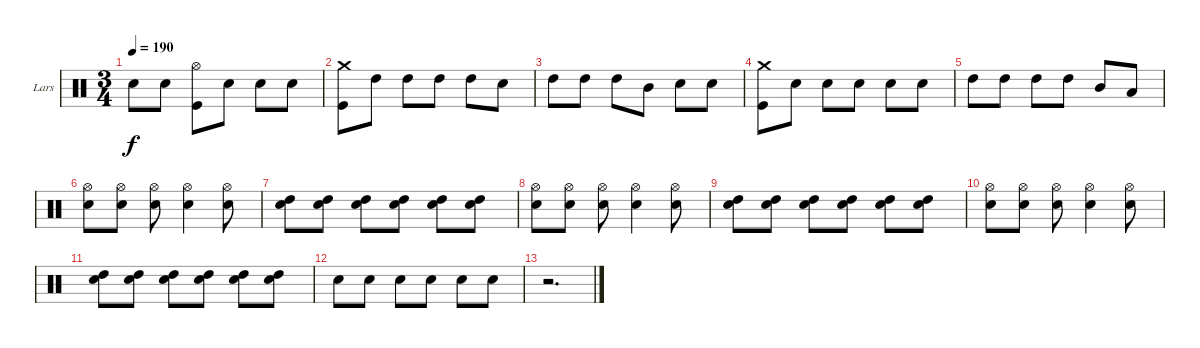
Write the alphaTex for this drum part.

\bracketExtendMode groupsimilarinstruments
\firstSystemTrackNameOrientation horizontal
\otherSystemsTrackNameOrientation horizontal
\track ("Drumkit" "Lars") {instrument percussion}
\staff {score}
\articulation defaults
\ts (3 4)
\tempo 190
\clef neutral
\ks c "Snare (hit) 2".8{dy f} "Snare (hit) 2".8
("Hi-Hat (open)" "Kick (hit)").8 "Snare (hit) 2".8 "Snare (hit) 2".8 "Snare (hit) 2".8 |
("Crash medium (hit)" "Kick (hit)").8 "High Tom (hit)".8 "High Tom (hit)".8 "High Tom (hit)".8 "High Tom (hit)".8 "Snare (hit) 2".8 |
"High Tom (hit)".8 "High Tom (hit)".8 "High Tom (hit)".8 "Mid Tom (hit)".8 "Snare (hit) 2".8 "Snare (hit) 2".8 |
("Crash medium (hit)" "Kick (hit)").8 "Snare (hit) 2".8 "Snare (hit) 2".8 "Snare (hit) 2".8 "Snare (hit) 2".8 "Snare (hit) 2".8 |
"High Tom (hit)".8 "High Tom (hit)".8 "High Tom (hit)".8 "High Tom (hit)".8 "Mid Tom (hit)".8 "Low Tom (hit)".8 |
("Hi-Hat (open)" "Snare (hit) 2").8 ("Hi-Hat (open)" "Snare (hit) 2").8 ("Hi-Hat (open)" "Snare (hit) 2").8 ("Hi-Hat (open)" "Snare (hit) 2").4 ("Hi-Hat (open)" "Snare (hit) 2").8 |
("Snare (hit) 2" "High Tom (hit)").8 ("Snare (hit) 2" "High Tom (hit)").8 ("Snare (hit) 2" "High Tom (hit)").8 ("Snare (hit) 2" "High Tom (hit)").8 ("Snare (hit) 2" "High Tom (hit)").8 ("Snare (hit) 2" "High Tom (hit)").8 |
("Hi-Hat (open)" "Snare (hit) 2").8 ("Hi-Hat (open)" "Snare (hit) 2").8 ("Hi-Hat (open)" "Snare (hit) 2").8 ("Hi-Hat (open)" "Snare (hit) 2").4 ("Hi-Hat (open)" "Snare (hit) 2").8 |
("Snare (hit) 2" "High Tom (hit)").8 ("Snare (hit) 2" "High Tom (hit)").8 ("Snare (hit) 2" "High Tom (hit)").8 ("Snare (hit) 2" "High Tom (hit)").8 ("Snare (hit) 2" "High Tom (hit)").8 ("Snare (hit) 2" "High Tom (hit)").8 |
("Hi-Hat (open)" "Snare (hit) 2").8 ("Hi-Hat (open)" "Snare (hit) 2").8 ("Hi-Hat (open)" "Snare (hit) 2").8 ("Hi-Hat (open)" "Snare (hit) 2").4 ("Hi-Hat (open)" "Snare (hit) 2").8 |
("Snare (hit) 2" "High Tom (hit)").8 ("Snare (hit) 2" "High Tom (hit)").8 ("Snare (hit) 2" "High Tom (hit)").8 ("Snare (hit) 2" "High Tom (hit)").8 ("Snare (hit) 2" "High Tom (hit)").8 ("Snare (hit) 2" "High Tom (hit)").8 |
"Snare (hit) 2".8 "Snare (hit) 2".8 "Snare (hit) 2".8 "Snare (hit) 2".8 "Snare (hit) 2".8 "Snare (hit) 2".8 |
r.2{d}
